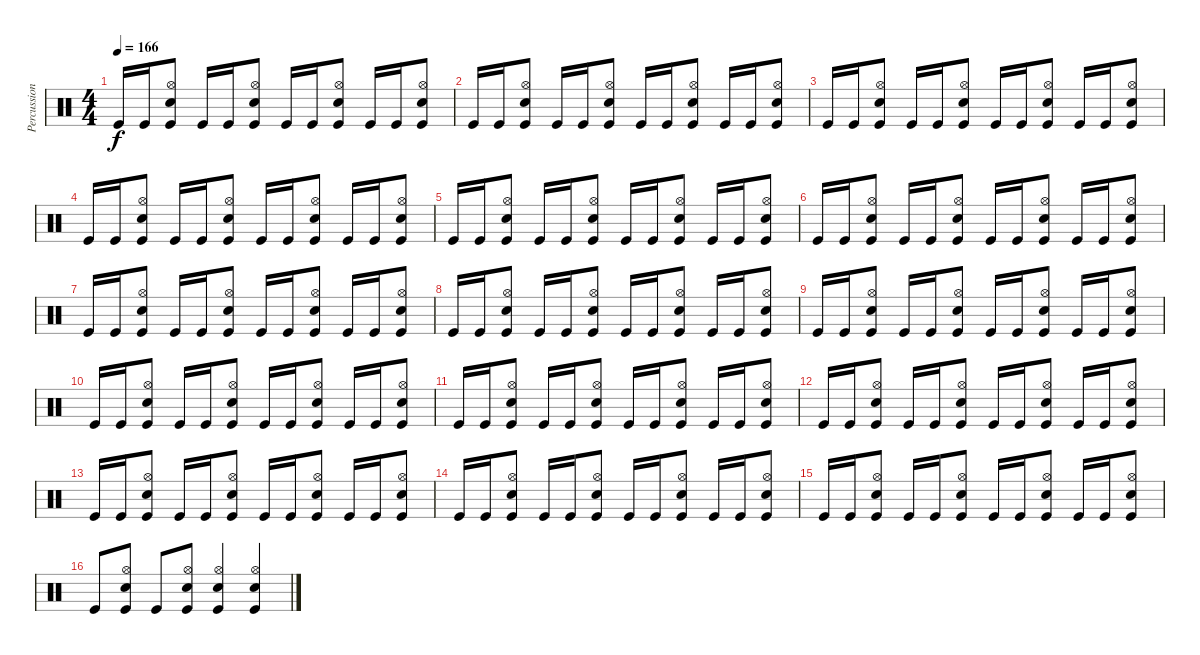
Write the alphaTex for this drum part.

\track ("Percussioni" "Percussion") {instrument percussion}
\staff {score}
\articulation defaults
\ts (4 4)
\tempo 166
\clef neutral
\ks c "Kick (hit)".16{dy f} "Kick (hit)".16
("Hi-Hat (open)" "Snare (hit) 2" "Kick (hit)").8 "Kick (hit)".16 "Kick (hit)".16 ("Hi-Hat (open)" "Snare (hit) 2" "Kick (hit)").8 "Kick (hit)".16 "Kick (hit)".16 ("Hi-Hat (open)" "Snare (hit) 2" "Kick (hit)").8 "Kick (hit)".16 "Kick (hit)".16 ("Hi-Hat (open)" "Snare (hit) 2" "Kick (hit)").8 |
"Kick (hit)".16 "Kick (hit)".16 ("Hi-Hat (open)" "Snare (hit) 2" "Kick (hit)").8 "Kick (hit)".16 "Kick (hit)".16 ("Hi-Hat (open)" "Snare (hit) 2" "Kick (hit)").8 "Kick (hit)".16 "Kick (hit)".16 ("Hi-Hat (open)" "Snare (hit) 2" "Kick (hit)").8 "Kick (hit)".16 "Kick (hit)".16 ("Hi-Hat (open)" "Snare (hit) 2" "Kick (hit)").8 |
"Kick (hit)".16 "Kick (hit)".16 ("Hi-Hat (open)" "Snare (hit) 2" "Kick (hit)").8 "Kick (hit)".16 "Kick (hit)".16 ("Hi-Hat (open)" "Snare (hit) 2" "Kick (hit)").8 "Kick (hit)".16 "Kick (hit)".16 ("Hi-Hat (open)" "Snare (hit) 2" "Kick (hit)").8 "Kick (hit)".16 "Kick (hit)".16 ("Hi-Hat (open)" "Snare (hit) 2" "Kick (hit)").8 |
"Kick (hit)".16 "Kick (hit)".16 ("Hi-Hat (open)" "Snare (hit) 2" "Kick (hit)").8 "Kick (hit)".16 "Kick (hit)".16 ("Hi-Hat (open)" "Snare (hit) 2" "Kick (hit)").8 "Kick (hit)".16 "Kick (hit)".16 ("Hi-Hat (open)" "Snare (hit) 2" "Kick (hit)").8 "Kick (hit)".16 "Kick (hit)".16 ("Hi-Hat (open)" "Snare (hit) 2" "Kick (hit)").8 |
"Kick (hit)".16 "Kick (hit)".16 ("Hi-Hat (open)" "Snare (hit) 2" "Kick (hit)").8 "Kick (hit)".16 "Kick (hit)".16 ("Hi-Hat (open)" "Snare (hit) 2" "Kick (hit)").8 "Kick (hit)".16 "Kick (hit)".16 ("Hi-Hat (open)" "Snare (hit) 2" "Kick (hit)").8 "Kick (hit)".16 "Kick (hit)".16 ("Hi-Hat (open)" "Snare (hit) 2" "Kick (hit)").8 |
"Kick (hit)".16 "Kick (hit)".16 ("Hi-Hat (open)" "Snare (hit) 2" "Kick (hit)").8 "Kick (hit)".16 "Kick (hit)".16 ("Hi-Hat (open)" "Snare (hit) 2" "Kick (hit)").8 "Kick (hit)".16 "Kick (hit)".16 ("Hi-Hat (open)" "Snare (hit) 2" "Kick (hit)").8 "Kick (hit)".16 "Kick (hit)".16 ("Hi-Hat (open)" "Snare (hit) 2" "Kick (hit)").8 |
"Kick (hit)".16 "Kick (hit)".16 ("Hi-Hat (open)" "Snare (hit) 2" "Kick (hit)").8 "Kick (hit)".16 "Kick (hit)".16 ("Hi-Hat (open)" "Snare (hit) 2" "Kick (hit)").8 "Kick (hit)".16 "Kick (hit)".16 ("Hi-Hat (open)" "Snare (hit) 2" "Kick (hit)").8 "Kick (hit)".16 "Kick (hit)".16 ("Hi-Hat (open)" "Snare (hit) 2" "Kick (hit)").8 |
"Kick (hit)".16 "Kick (hit)".16 ("Hi-Hat (open)" "Snare (hit) 2" "Kick (hit)").8 "Kick (hit)".16 "Kick (hit)".16 ("Hi-Hat (open)" "Snare (hit) 2" "Kick (hit)").8 "Kick (hit)".16 "Kick (hit)".16 ("Hi-Hat (open)" "Snare (hit) 2" "Kick (hit)").8 "Kick (hit)".16 "Kick (hit)".16 ("Hi-Hat (open)" "Snare (hit) 2" "Kick (hit)").8 |
"Kick (hit)".16 "Kick (hit)".16 ("Hi-Hat (open)" "Snare (hit) 2" "Kick (hit)").8 "Kick (hit)".16 "Kick (hit)".16 ("Hi-Hat (open)" "Snare (hit) 2" "Kick (hit)").8 "Kick (hit)".16 "Kick (hit)".16 ("Hi-Hat (open)" "Snare (hit) 2" "Kick (hit)").8 "Kick (hit)".16 "Kick (hit)".16 ("Hi-Hat (open)" "Snare (hit) 2" "Kick (hit)").8 |
"Kick (hit)".16 "Kick (hit)".16 ("Hi-Hat (open)" "Snare (hit) 2" "Kick (hit)").8 "Kick (hit)".16 "Kick (hit)".16 ("Hi-Hat (open)" "Snare (hit) 2" "Kick (hit)").8 "Kick (hit)".16 "Kick (hit)".16 ("Hi-Hat (open)" "Snare (hit) 2" "Kick (hit)").8 "Kick (hit)".16 "Kick (hit)".16 ("Hi-Hat (open)" "Snare (hit) 2" "Kick (hit)").8 |
"Kick (hit)".16 "Kick (hit)".16 ("Hi-Hat (open)" "Snare (hit) 2" "Kick (hit)").8 "Kick (hit)".16 "Kick (hit)".16 ("Hi-Hat (open)" "Snare (hit) 2" "Kick (hit)").8 "Kick (hit)".16 "Kick (hit)".16 ("Hi-Hat (open)" "Snare (hit) 2" "Kick (hit)").8 "Kick (hit)".16 "Kick (hit)".16 ("Hi-Hat (open)" "Snare (hit) 2" "Kick (hit)").8 |
"Kick (hit)".16 "Kick (hit)".16 ("Hi-Hat (open)" "Snare (hit) 2" "Kick (hit)").8 "Kick (hit)".16 "Kick (hit)".16 ("Hi-Hat (open)" "Snare (hit) 2" "Kick (hit)").8 "Kick (hit)".16 "Kick (hit)".16 ("Hi-Hat (open)" "Snare (hit) 2" "Kick (hit)").8 "Kick (hit)".16 "Kick (hit)".16 ("Hi-Hat (open)" "Snare (hit) 2" "Kick (hit)").8 |
"Kick (hit)".16 "Kick (hit)".16 ("Hi-Hat (open)" "Snare (hit) 2" "Kick (hit)").8 "Kick (hit)".16 "Kick (hit)".16 ("Hi-Hat (open)" "Snare (hit) 2" "Kick (hit)").8 "Kick (hit)".16 "Kick (hit)".16 ("Hi-Hat (open)" "Snare (hit) 2" "Kick (hit)").8 "Kick (hit)".16 "Kick (hit)".16 ("Hi-Hat (open)" "Snare (hit) 2" "Kick (hit)").8 |
"Kick (hit)".16 "Kick (hit)".16 ("Hi-Hat (open)" "Snare (hit) 2" "Kick (hit)").8 "Kick (hit)".16 "Kick (hit)".16 ("Hi-Hat (open)" "Snare (hit) 2" "Kick (hit)").8 "Kick (hit)".16 "Kick (hit)".16 ("Hi-Hat (open)" "Snare (hit) 2" "Kick (hit)").8 "Kick (hit)".16 "Kick (hit)".16 ("Hi-Hat (open)" "Snare (hit) 2" "Kick (hit)").8 |
"Kick (hit)".16 "Kick (hit)".16 ("Hi-Hat (open)" "Snare (hit) 2" "Kick (hit)").8 "Kick (hit)".16 "Kick (hit)".16 ("Hi-Hat (open)" "Snare (hit) 2" "Kick (hit)").8 "Kick (hit)".16 "Kick (hit)".16 ("Hi-Hat (open)" "Snare (hit) 2" "Kick (hit)").8 "Kick (hit)".16 "Kick (hit)".16 ("Hi-Hat (open)" "Snare (hit) 2" "Kick (hit)").8 |
"Kick (hit)".8 ("Hi-Hat (open)" "Snare (hit) 2" "Kick (hit)").8 "Kick (hit)".8 ("Hi-Hat (open)" "Snare (hit) 2" "Kick (hit)").8 ("Hi-Hat (open)" "Snare (hit) 2" "Kick (hit)").4 ("Hi-Hat (open)" "Snare (hit) 2" "Kick (hit)").4
